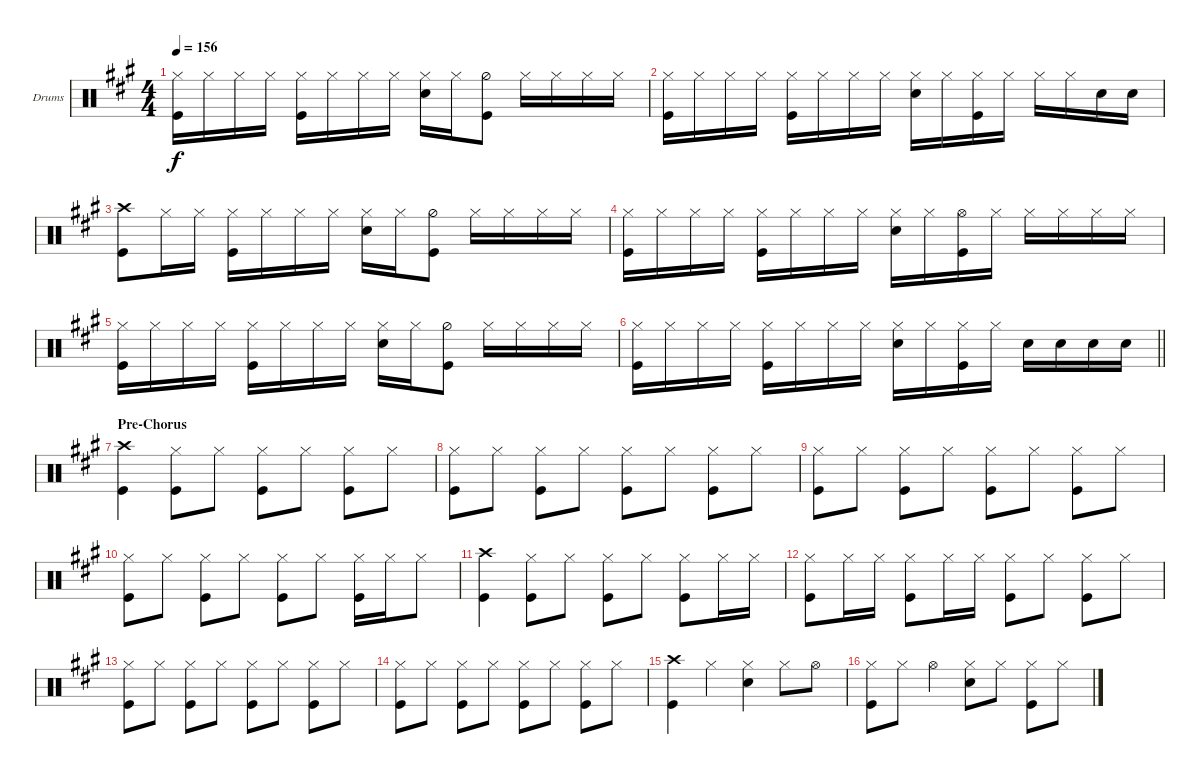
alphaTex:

\defaultSystemsLayout 4
\bracketExtendMode groupsimilarinstruments
\firstSystemTrackNameOrientation horizontal
\otherSystemsTrackNameOrientation horizontal
\track ("Drums" "Drums") {instrument percussion}
\staff {score}
\articulation defaults
\ts (4 4)
\tempo 156
\clef neutral
\ks a
("Hi-Hat (closed)" "Kick (hit)").16{dy f} "Hi-Hat (closed)".16 "Hi-Hat (closed)".16 "Hi-Hat (closed)".16 ("Hi-Hat (closed)" "Kick (hit)").16 "Hi-Hat (closed)".16 "Hi-Hat (closed)".16 "Hi-Hat (closed)".16 ("Hi-Hat (closed)" "Snare (hit) 2").16 "Hi-Hat (closed)".16 ("Hi-Hat (half)" "Kick (hit)").8 "Hi-Hat (closed)".16 "Hi-Hat (closed)".16 "Hi-Hat (closed)".16 "Hi-Hat (closed)".16 |
("Hi-Hat (closed)" "Kick (hit)").16 "Hi-Hat (closed)".16 "Hi-Hat (closed)".16 "Hi-Hat (closed)".16 ("Hi-Hat (closed)" "Kick (hit)").16 "Hi-Hat (closed)".16 "Hi-Hat (closed)".16 "Hi-Hat (closed)".16 ("Hi-Hat (closed)" "Snare (hit) 2").16 "Hi-Hat (closed)".16 ("Hi-Hat (closed)" "Kick (hit)").16 "Hi-Hat (closed)".16 "Hi-Hat (closed)".16 "Hi-Hat (closed)".16 "Snare (hit) 2".16 "Snare (hit) 2".16 |
("Crash high (hit)" "Kick (hit)").8 "Hi-Hat (closed)".16 "Hi-Hat (closed)".16 ("Hi-Hat (closed)" "Kick (hit)").16 "Hi-Hat (closed)".16 "Hi-Hat (closed)".16 "Hi-Hat (closed)".16 ("Hi-Hat (closed)" "Snare (hit) 2").16 "Hi-Hat (closed)".16 ("Hi-Hat (half)" "Kick (hit)").8 "Hi-Hat (closed)".16 "Hi-Hat (closed)".16 "Hi-Hat (closed)".16 "Hi-Hat (closed)".16 |
("Hi-Hat (closed)" "Kick (hit)").16 "Hi-Hat (closed)".16 "Hi-Hat (closed)".16 "Hi-Hat (closed)".16 ("Hi-Hat (closed)" "Kick (hit)").16 "Hi-Hat (closed)".16 "Hi-Hat (closed)".16 "Hi-Hat (closed)".16 ("Hi-Hat (closed)" "Snare (hit) 2").16 "Hi-Hat (closed)".16 ("Hi-Hat (open)" "Kick (hit)").16 "Hi-Hat (closed)".16 "Hi-Hat (closed)".16 "Hi-Hat (closed)".16 "Hi-Hat (closed)".16 "Hi-Hat (closed)".16 |
("Hi-Hat (closed)" "Kick (hit)").16 "Hi-Hat (closed)".16 "Hi-Hat (closed)".16 "Hi-Hat (closed)".16 ("Hi-Hat (closed)" "Kick (hit)").16 "Hi-Hat (closed)".16 "Hi-Hat (closed)".16 "Hi-Hat (closed)".16 ("Hi-Hat (closed)" "Snare (hit) 2").16 "Hi-Hat (closed)".16 ("Hi-Hat (half)" "Kick (hit)").8 "Hi-Hat (closed)".16 "Hi-Hat (closed)".16 "Hi-Hat (closed)".16 "Hi-Hat (closed)".16 |
\barLineRight lightlight
("Hi-Hat (closed)" "Kick (hit)").16 "Hi-Hat (closed)".16 "Hi-Hat (closed)".16 "Hi-Hat (closed)".16 ("Hi-Hat (closed)" "Kick (hit)").16 "Hi-Hat (closed)".16 "Hi-Hat (closed)".16 "Hi-Hat (closed)".16 ("Hi-Hat (closed)" "Snare (hit) 2").16 "Hi-Hat (closed)".16 ("Hi-Hat (closed)" "Kick (hit)").16 "Hi-Hat (closed)".16 "Snare (hit) 2".16 "Snare (hit) 2".16 "Snare (hit) 2".16 "Snare (hit) 2".16 |
\section ("" "Pre-Chorus")
("Kick (hit)" "Crash high (hit)").4 ("Hi-Hat (closed)" "Kick (hit)").8 "Hi-Hat (closed)".8 ("Hi-Hat (closed)" "Kick (hit)").8 "Hi-Hat (closed)".8 ("Hi-Hat (closed)" "Kick (hit)").8 "Hi-Hat (closed)".8 |
("Hi-Hat (closed)" "Kick (hit)").8 "Hi-Hat (closed)".8 ("Hi-Hat (closed)" "Kick (hit)").8 "Hi-Hat (closed)".8 ("Hi-Hat (closed)" "Kick (hit)").8 "Hi-Hat (closed)".8 ("Hi-Hat (closed)" "Kick (hit)").8 "Hi-Hat (closed)".8 |
("Hi-Hat (closed)" "Kick (hit)").8 "Hi-Hat (closed)".8 ("Hi-Hat (closed)" "Kick (hit)").8 "Hi-Hat (closed)".8 ("Hi-Hat (closed)" "Kick (hit)").8 "Hi-Hat (closed)".8 ("Hi-Hat (closed)" "Kick (hit)").8 "Hi-Hat (closed)".8 |
("Hi-Hat (closed)" "Kick (hit)").8 "Hi-Hat (closed)".8 ("Hi-Hat (closed)" "Kick (hit)").8 "Hi-Hat (closed)".8 ("Hi-Hat (closed)" "Kick (hit)").8 "Hi-Hat (closed)".8 ("Hi-Hat (closed)" "Kick (hit)").16 "Hi-Hat (closed)".16 "Hi-Hat (closed)".8 |
("Kick (hit)" "Crash high (hit)").4 ("Hi-Hat (closed)" "Kick (hit)").8 "Hi-Hat (closed)".8 ("Hi-Hat (closed)" "Kick (hit)").8 "Hi-Hat (closed)".8 ("Hi-Hat (closed)" "Kick (hit)").8 "Hi-Hat (closed)".16 "Hi-Hat (closed)".16 |
("Hi-Hat (closed)" "Kick (hit)").8 "Hi-Hat (closed)".16 "Hi-Hat (closed)".16 ("Hi-Hat (closed)" "Kick (hit)").8 "Hi-Hat (closed)".16 "Hi-Hat (closed)".16 ("Hi-Hat (closed)" "Kick (hit)").8 "Hi-Hat (closed)".8 ("Hi-Hat (closed)" "Kick (hit)").8 "Hi-Hat (closed)".8 |
("Hi-Hat (closed)" "Kick (hit)").8 "Hi-Hat (closed)".8 ("Hi-Hat (closed)" "Kick (hit)").8 "Hi-Hat (closed)".8 ("Hi-Hat (closed)" "Kick (hit)").8 "Hi-Hat (closed)".8 ("Hi-Hat (closed)" "Kick (hit)").8 "Hi-Hat (closed)".8 |
("Hi-Hat (closed)" "Kick (hit)").8 "Hi-Hat (closed)".8 ("Hi-Hat (closed)" "Kick (hit)").8 "Hi-Hat (closed)".8 ("Hi-Hat (closed)" "Kick (hit)").8 "Hi-Hat (closed)".8 ("Hi-Hat (closed)" "Kick (hit)").8 "Hi-Hat (closed)".8 |
("Kick (hit)" "Crash high (hit)").4 "Hi-Hat (closed)".4 ("Hi-Hat (closed)" "Snare (hit) 2").4 "Hi-Hat (closed)".8 "Hi-Hat (open)".8 |
("Kick (hit)" "Hi-Hat (closed)").8 "Hi-Hat (closed)".8 "Hi-Hat (open)".4 ("Hi-Hat (closed)" "Snare (hit) 2").8 "Hi-Hat (closed)".8 ("Hi-Hat (closed)" "Kick (hit)").8 "Hi-Hat (closed)".8
